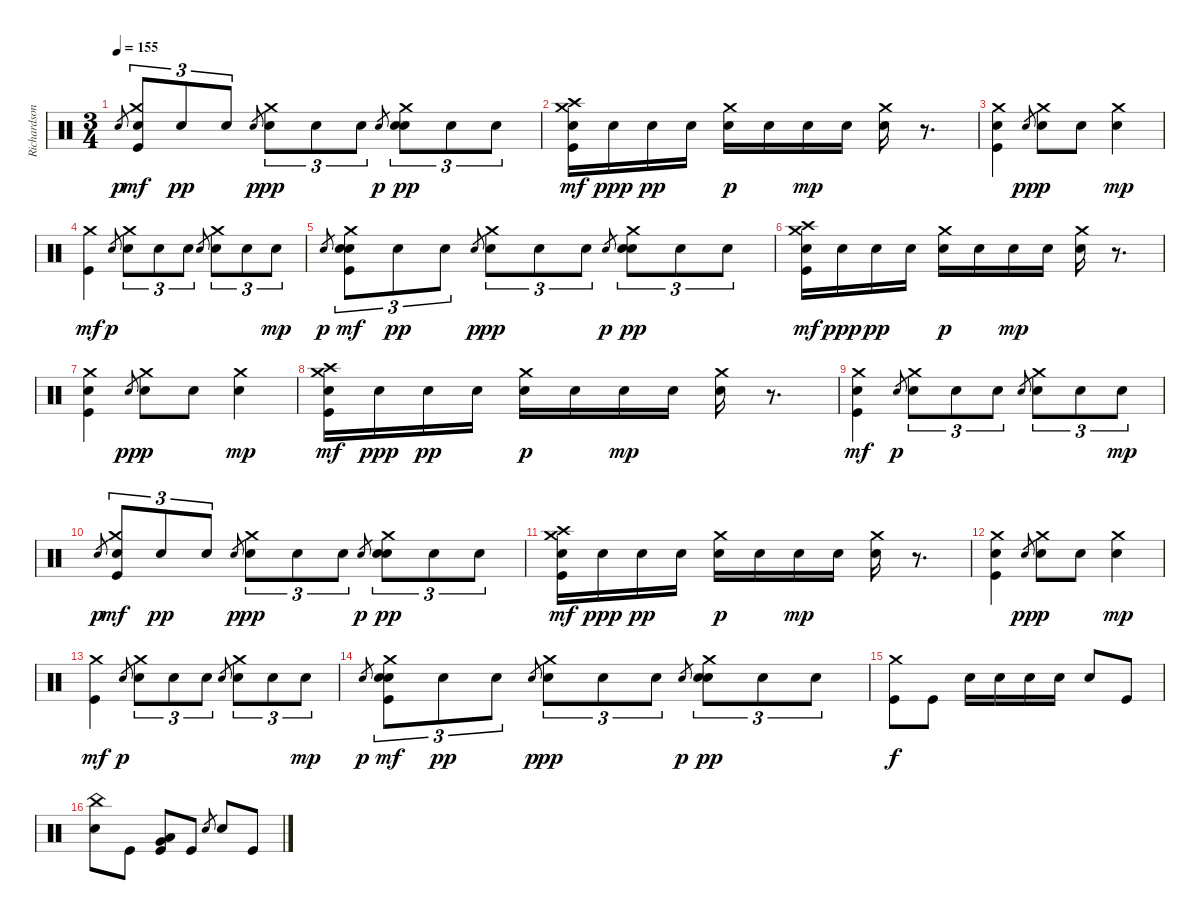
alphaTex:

\track ("Richardson" "Richardson") {instrument percussion}
\staff {score}
\articulation defaults
\ts (3 4)
\tempo 155
\clef neutral
\ks c "Snare (hit) 2".8{gr dy p}
("Crash medium (hit)" "Snare (hit) 2" "Kick (hit)").8{tu (3 2) dy mf} "Snare (hit) 2".8{tu (3 2) dy pp} "Snare (hit) 2".8{tu (3 2)} "Snare (hit) 2".8{gr dy p} ("Crash medium (hit)" "Snare (hit) 2").8{tu (3 2) dy pp} "Snare (hit) 2".8{tu (3 2)} "Snare (hit) 2".8{tu (3 2)} "Snare (hit) 2".8{gr dy p} ("Crash medium (hit)" "Electric Snare (hit)" "Snare (hit) 2").8{tu (3 2) dy pp} "Snare (hit) 2".8{tu (3 2)} "Snare (hit) 2".8{tu (3 2)} |
("Crash medium (hit)" "Crash high (hit)" "Snare (hit) 2" "Kick (hit)").16{dy mf} "Snare (hit) 2".16{dy ppp} "Snare (hit) 2".16{dy pp} "Snare (hit) 2".16 ("Crash medium (hit)" "Snare (hit) 2").16{dy p} "Snare (hit) 2".16 "Snare (hit) 2".16{dy mp} "Snare (hit) 2".16 ("Crash medium (hit)" "Snare (hit) 2").16 r.8{d} |
("Crash medium (hit)" "Electric Snare (hit)" "Kick (hit)").4 "Snare (hit) 2".8{gr dy pp} ("Crash medium (hit)" "Snare (hit) 2").8{dy p} "Snare (hit) 2".8 ("Crash medium (hit)" "Snare (hit) 2").4{dy mp} |
("Crash medium (hit)" "Kick (hit)").4{dy mf} "Snare (hit) 2".8{gr dy p} ("Crash medium (hit)" "Snare (hit) 2").8{tu (3 2)} "Snare (hit) 2".8{tu (3 2)} "Snare (hit) 2".8{tu (3 2)} "Snare (hit) 2".8{gr} ("Crash medium (hit)" "Snare (hit) 2").8{tu (3 2)} "Snare (hit) 2".8{tu (3 2)} "Snare (hit) 2".8{tu (3 2) dy mp} |
"Snare (hit) 2".8{gr dy p} ("Crash medium (hit)" "Electric Snare (hit)" "Snare (hit) 2" "Kick (hit)").8{tu (3 2) dy mf} "Snare (hit) 2".8{tu (3 2) dy pp} "Snare (hit) 2".8{tu (3 2)} "Snare (hit) 2".8{gr dy p} ("Crash medium (hit)" "Snare (hit) 2").8{tu (3 2) dy pp} "Snare (hit) 2".8{tu (3 2)} "Snare (hit) 2".8{tu (3 2)} "Snare (hit) 2".8{gr dy p} ("Crash medium (hit)" "Electric Snare (hit)" "Snare (hit) 2").8{tu (3 2) dy pp} "Snare (hit) 2".8{tu (3 2)} "Snare (hit) 2".8{tu (3 2)} |
("Crash medium (hit)" "Crash high (hit)" "Snare (hit) 2" "Kick (hit)").16{dy mf volume 16} "Snare (hit) 2".16{dy ppp} "Snare (hit) 2".16{dy pp} "Snare (hit) 2".16 ("Crash medium (hit)" "Snare (hit) 2").16{dy p} "Snare (hit) 2".16 "Snare (hit) 2".16{dy mp} "Snare (hit) 2".16 ("Crash medium (hit)" "Snare (hit) 2").16 r.8{d} |
("Crash medium (hit)" "Electric Snare (hit)" "Kick (hit)").4 "Snare (hit) 2".8{gr dy pp} ("Crash medium (hit)" "Snare (hit) 2").8{dy p} "Snare (hit) 2".8 ("Crash medium (hit)" "Snare (hit) 2").4{dy mp} |
("Crash medium (hit)" "Crash high (hit)" "Snare (hit) 2" "Kick (hit)").16{dy mf} "Snare (hit) 2".16{dy ppp} "Snare (hit) 2".16{dy pp} "Snare (hit) 2".16 ("Crash medium (hit)" "Snare (hit) 2").16{dy p} "Snare (hit) 2".16 "Snare (hit) 2".16{dy mp} "Snare (hit) 2".16 ("Crash medium (hit)" "Snare (hit) 2").16 r.8{d} |
("Crash medium (hit)" "Electric Snare (hit)" "Kick (hit)").4{dy mf} "Snare (hit) 2".8{gr dy p} ("Crash medium (hit)" "Snare (hit) 2").8{tu (3 2)} "Snare (hit) 2".8{tu (3 2)} "Snare (hit) 2".8{tu (3 2)} "Snare (hit) 2".8{gr} ("Crash medium (hit)" "Snare (hit) 2").8{tu (3 2)} "Snare (hit) 2".8{tu (3 2)} "Snare (hit) 2".8{tu (3 2) dy mp} |
"Snare (hit) 2".8{gr dy p} ("Crash medium (hit)" "Snare (hit) 2" "Kick (hit)").8{tu (3 2) dy mf} "Snare (hit) 2".8{tu (3 2) dy pp} "Snare (hit) 2".8{tu (3 2)} "Snare (hit) 2".8{gr dy p} ("Crash medium (hit)" "Snare (hit) 2").8{tu (3 2) dy pp} "Snare (hit) 2".8{tu (3 2)} "Snare (hit) 2".8{tu (3 2)} "Snare (hit) 2".8{gr dy p} ("Crash medium (hit)" "Electric Snare (hit)" "Snare (hit) 2").8{tu (3 2) dy pp} "Snare (hit) 2".8{tu (3 2)} "Snare (hit) 2".8{tu (3 2)} |
("Crash medium (hit)" "Crash high (hit)" "Snare (hit) 2" "Kick (hit)").16{dy mf} "Snare (hit) 2".16{dy ppp} "Snare (hit) 2".16{dy pp} "Snare (hit) 2".16 ("Crash medium (hit)" "Snare (hit) 2").16{dy p} "Snare (hit) 2".16 "Snare (hit) 2".16{dy mp} "Snare (hit) 2".16 ("Crash medium (hit)" "Snare (hit) 2").16 r.8{d} |
("Crash medium (hit)" "Electric Snare (hit)" "Kick (hit)").4 "Snare (hit) 2".8{gr dy pp} ("Crash medium (hit)" "Snare (hit) 2").8{dy p} "Snare (hit) 2".8 ("Crash medium (hit)" "Snare (hit) 2").4{dy mp} |
("Crash medium (hit)" "Kick (hit)").4{dy mf} "Snare (hit) 2".8{gr dy p} ("Crash medium (hit)" "Snare (hit) 2").8{tu (3 2)} "Snare (hit) 2".8{tu (3 2)} "Snare (hit) 2".8{tu (3 2)} "Snare (hit) 2".8{gr} ("Crash medium (hit)" "Snare (hit) 2").8{tu (3 2)} "Snare (hit) 2".8{tu (3 2)} "Snare (hit) 2".8{tu (3 2) dy mp} |
"Snare (hit) 2".8{gr dy p} ("Crash medium (hit)" "Electric Snare (hit)" "Snare (hit) 2" "Kick (hit)").8{tu (3 2) dy mf} "Snare (hit) 2".8{tu (3 2) dy pp} "Snare (hit) 2".8{tu (3 2)} "Snare (hit) 2".8{gr dy p} ("Crash medium (hit)" "Snare (hit) 2").8{tu (3 2) dy pp} "Snare (hit) 2".8{tu (3 2)} "Snare (hit) 2".8{tu (3 2)} "Snare (hit) 2".8{gr dy p} ("Crash medium (hit)" "Electric Snare (hit)" "Snare (hit) 2").8{tu (3 2) dy pp} "Snare (hit) 2".8{tu (3 2)} "Snare (hit) 2".8{tu (3 2)} |
("Crash medium (hit)" "Kick (hit)").8{dy f} "Kick (hit)".8 "Electric Snare (hit)".16 "Electric Snare (hit)".16 "Electric Snare (hit)".16 "Electric Snare (hit)".16 "Electric Snare (hit)".8 "Kick (hit)".8 |
("China (hit)" "Electric Snare (hit)").8 "Kick (hit)".8 ("Low Tom (hit)" "Very Low Tom (hit)" "Kick (hit)").8 "Kick (hit)".8 "Electric Snare (hit)".8{gr} "Electric Snare (hit)".8 "Kick (hit)".8
